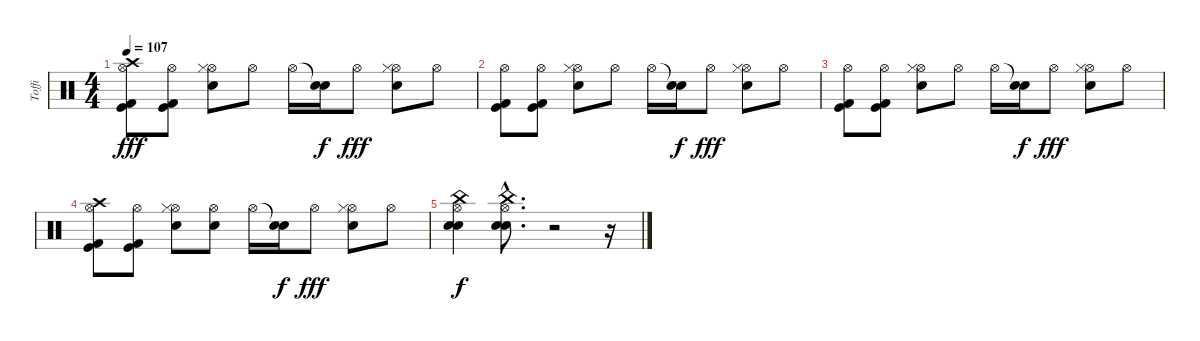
\track ("Toffi" "Toffi") {instrument percussion}
\staff {score}
\articulation defaults
\ts (4 4)
\tempo 107
\clef neutral
\ks c
("Hi-Hat (open)" "Crash high (hit)" "Kick (hit) 2" "Kick (hit)").8{dy fff} ("Hi-Hat (open)" "Kick (hit) 2" "Kick (hit)").8 ("Hi-Hat (open)" "Hi-Hat (closed)" "Snare (hit) 2").8 "Hi-Hat (open)".8 "Hi-Hat (open)".16 ("Snare (hit)"{t} "Snare (hit) 2").16{dy f} "Hi-Hat (open)".8{dy fff} ("Hi-Hat (open)" "Hi-Hat (closed)" "Snare (hit) 2").8 "Hi-Hat (open)".8 |
("Hi-Hat (open)" "Kick (hit) 2" "Kick (hit)").8 ("Hi-Hat (open)" "Kick (hit) 2" "Kick (hit)").8 ("Hi-Hat (open)" "Hi-Hat (closed)" "Snare (hit) 2").8 "Hi-Hat (open)".8 "Hi-Hat (open)".16 ("Snare (hit)"{t} "Snare (hit) 2").16{dy f} "Hi-Hat (open)".8{dy fff} ("Hi-Hat (open)" "Hi-Hat (closed)" "Snare (hit) 2").8 "Hi-Hat (open)".8 |
("Hi-Hat (open)" "Kick (hit) 2" "Kick (hit)").8 ("Hi-Hat (open)" "Kick (hit) 2" "Kick (hit)").8 ("Hi-Hat (open)" "Hi-Hat (closed)" "Snare (hit) 2").8 "Hi-Hat (open)".8 "Hi-Hat (open)".16 ("Snare (hit)"{t} "Snare (hit) 2").16{dy f} "Hi-Hat (open)".8{dy fff} ("Hi-Hat (open)" "Hi-Hat (closed)" "Snare (hit) 2").8 "Hi-Hat (open)".8 |
("Hi-Hat (open)" "Crash high (hit)" "Kick (hit) 2" "Kick (hit)").8 ("Hi-Hat (open)" "Kick (hit) 2" "Kick (hit)").8 ("Hi-Hat (open)" "Hi-Hat (closed)" "Snare (hit) 2").8 ("Hi-Hat (open)" "Electric Snare (hit)").8 "Hi-Hat (open)".16 ("Snare (hit)"{t} "Snare (hit) 2").16{dy f} "Hi-Hat (open)".8{dy fff} ("Hi-Hat (open)" "Hi-Hat (closed)" "Snare (hit) 2").8 "Hi-Hat (open)".8 |
("Snare (hit) 2" "Electric Snare (hit)" "Hi-Hat (open)" "China (hit)").4{dy f} ("Snare (hit) 2"{hac} "Electric Snare (hit)"{hac} "Hi-Hat (open)"{hac} "China (hit)"{hac}).8{d} r.2 r.16
